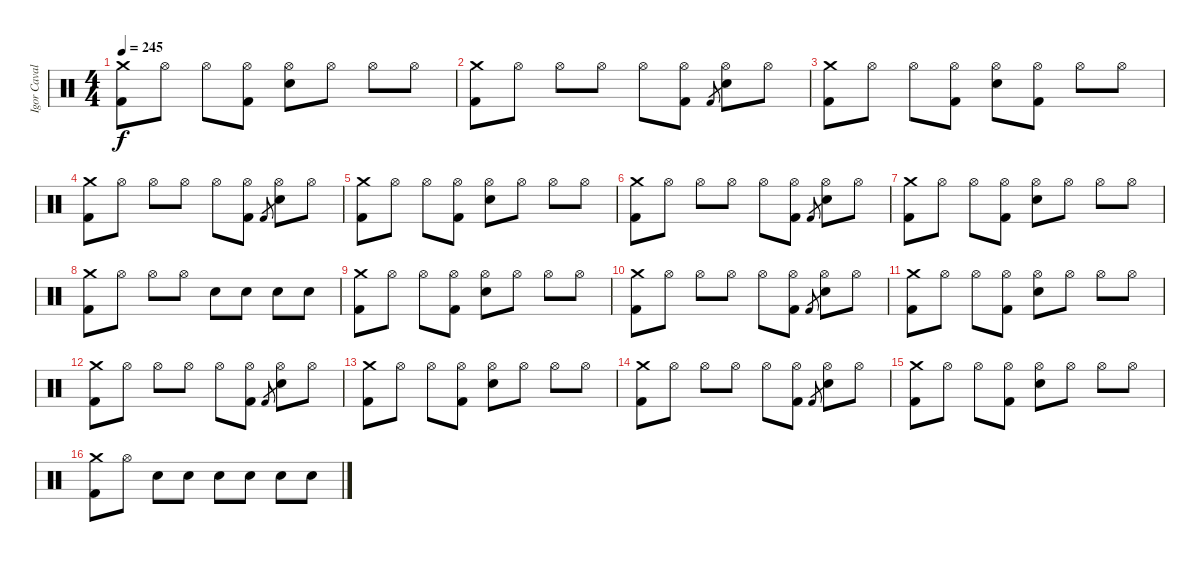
\track ("Igor Cavalera" "Igor Caval") {instrument percussion}
\staff {score}
\articulation defaults
\ts (4 4)
\tempo 245
\clef neutral
\ks c
("Kick (hit) 2" "Crash medium (hit)").8{dy f} "Hi-Hat (open)".8 "Hi-Hat (open)".8 ("Kick (hit) 2" "Hi-Hat (open)").8 ("Electric Snare (hit)" "Hi-Hat (open)").8 "Hi-Hat (open)".8 "Hi-Hat (open)".8 "Hi-Hat (open)".8 |
("Kick (hit) 2" "Crash medium (hit)").8 "Hi-Hat (open)".8 "Hi-Hat (open)".8 "Hi-Hat (open)".8 "Hi-Hat (open)".8 ("Kick (hit) 2" "Hi-Hat (open)").8 "Kick (hit) 2".8{gr} ("Electric Snare (hit)" "Hi-Hat (open)").8 "Hi-Hat (open)".8 |
("Kick (hit) 2" "Crash medium (hit)").8 "Hi-Hat (open)".8 "Hi-Hat (open)".8 ("Kick (hit) 2" "Hi-Hat (open)").8 ("Electric Snare (hit)" "Hi-Hat (open)").8 ("Kick (hit) 2" "Hi-Hat (open)").8 "Hi-Hat (open)".8 "Hi-Hat (open)".8 |
("Kick (hit) 2" "Crash medium (hit)").8 "Hi-Hat (open)".8 "Hi-Hat (open)".8 "Hi-Hat (open)".8 "Hi-Hat (open)".8 ("Kick (hit) 2" "Hi-Hat (open)").8 "Kick (hit) 2".8{gr} ("Electric Snare (hit)" "Hi-Hat (open)").8 "Hi-Hat (open)".8 |
("Kick (hit) 2" "Crash medium (hit)").8 "Hi-Hat (open)".8 "Hi-Hat (open)".8 ("Kick (hit) 2" "Hi-Hat (open)").8 ("Electric Snare (hit)" "Hi-Hat (open)").8 "Hi-Hat (open)".8 "Hi-Hat (open)".8 "Hi-Hat (open)".8 |
("Kick (hit) 2" "Crash medium (hit)").8 "Hi-Hat (open)".8 "Hi-Hat (open)".8 "Hi-Hat (open)".8 "Hi-Hat (open)".8 ("Kick (hit) 2" "Hi-Hat (open)").8 "Kick (hit) 2".8{gr} ("Electric Snare (hit)" "Hi-Hat (open)").8 "Hi-Hat (open)".8 |
("Kick (hit) 2" "Crash medium (hit)").8 "Hi-Hat (open)".8 "Hi-Hat (open)".8 ("Kick (hit) 2" "Hi-Hat (open)").8 ("Electric Snare (hit)" "Hi-Hat (open)").8 "Hi-Hat (open)".8 "Hi-Hat (open)".8 "Hi-Hat (open)".8 |
("Kick (hit) 2" "Crash medium (hit)").8 "Hi-Hat (open)".8 "Hi-Hat (open)".8 "Hi-Hat (open)".8 "Electric Snare (hit)".8 "Electric Snare (hit)".8 "Electric Snare (hit)".8 "Electric Snare (hit)".8 |
("Kick (hit) 2" "Crash medium (hit)").8 "Hi-Hat (open)".8 "Hi-Hat (open)".8 ("Kick (hit) 2" "Hi-Hat (open)").8 ("Electric Snare (hit)" "Hi-Hat (open)").8 "Hi-Hat (open)".8 "Hi-Hat (open)".8 "Hi-Hat (open)".8 |
("Kick (hit) 2" "Crash medium (hit)").8 "Hi-Hat (open)".8 "Hi-Hat (open)".8 "Hi-Hat (open)".8 "Hi-Hat (open)".8 ("Kick (hit) 2" "Hi-Hat (open)").8 "Kick (hit) 2".8{gr} ("Electric Snare (hit)" "Hi-Hat (open)").8 "Hi-Hat (open)".8 |
("Kick (hit) 2" "Crash medium (hit)").8 "Hi-Hat (open)".8 "Hi-Hat (open)".8 ("Kick (hit) 2" "Hi-Hat (open)").8 ("Electric Snare (hit)" "Hi-Hat (open)").8 "Hi-Hat (open)".8 "Hi-Hat (open)".8 "Hi-Hat (open)".8 |
("Kick (hit) 2" "Crash medium (hit)").8 "Hi-Hat (open)".8 "Hi-Hat (open)".8 "Hi-Hat (open)".8 "Hi-Hat (open)".8 ("Kick (hit) 2" "Hi-Hat (open)").8 "Kick (hit) 2".8{gr} ("Electric Snare (hit)" "Hi-Hat (open)").8 "Hi-Hat (open)".8 |
("Kick (hit) 2" "Crash medium (hit)").8 "Hi-Hat (open)".8 "Hi-Hat (open)".8 ("Kick (hit) 2" "Hi-Hat (open)").8 ("Electric Snare (hit)" "Hi-Hat (open)").8 "Hi-Hat (open)".8 "Hi-Hat (open)".8 "Hi-Hat (open)".8 |
("Kick (hit) 2" "Crash medium (hit)").8 "Hi-Hat (open)".8 "Hi-Hat (open)".8 "Hi-Hat (open)".8 "Hi-Hat (open)".8 ("Kick (hit) 2" "Hi-Hat (open)").8 "Kick (hit) 2".8{gr} ("Electric Snare (hit)" "Hi-Hat (open)").8 "Hi-Hat (open)".8 |
("Kick (hit) 2" "Crash medium (hit)").8 "Hi-Hat (open)".8 "Hi-Hat (open)".8 ("Kick (hit) 2" "Hi-Hat (open)").8 ("Electric Snare (hit)" "Hi-Hat (open)").8 "Hi-Hat (open)".8 "Hi-Hat (open)".8 "Hi-Hat (open)".8 |
("Kick (hit) 2" "Crash medium (hit)").8 "Hi-Hat (open)".8 "Electric Snare (hit)".8 "Electric Snare (hit)".8 "Electric Snare (hit)".8 "Electric Snare (hit)".8 "Electric Snare (hit)".8 "Electric Snare (hit)".8
